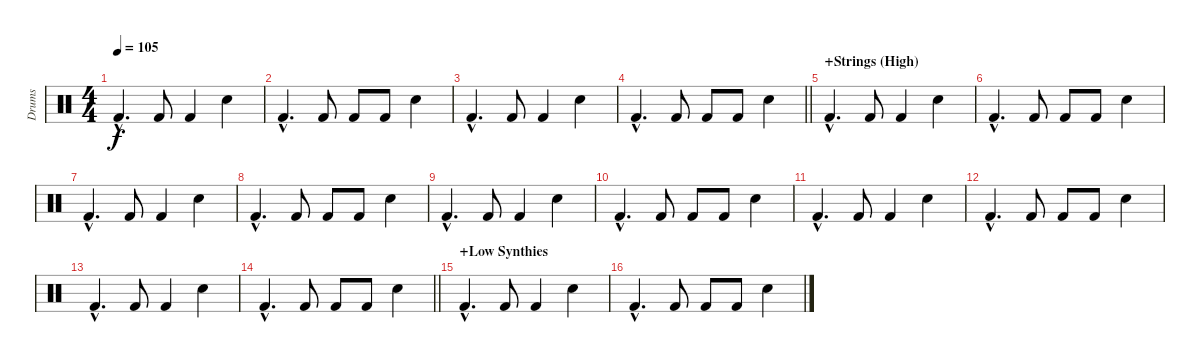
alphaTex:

\track ("Drums" "Drums") {instrument percussion}
\staff {score}
\articulation defaults
\ts (4 4)
\tempo 105
\clef neutral
\ks c "Kick (hit) 2"{hac}.4{d dy f} "Kick (hit) 2".8 "Kick (hit) 2".4 "Snare (hit) 2".4
|
"Kick (hit) 2"{hac}.4{d} "Kick (hit) 2".8 "Kick (hit) 2".8 "Kick (hit) 2".8 "Snare (hit) 2".4 |
"Kick (hit) 2"{hac}.4{d} "Kick (hit) 2".8 "Kick (hit) 2".4 "Snare (hit) 2".4 |
\barLineRight lightlight "Kick (hit) 2"{hac}.4{d} "Kick (hit) 2".8 "Kick (hit) 2".8 "Kick (hit) 2".8 "Snare (hit) 2".4
|
\section ("" "+Strings (High)")
"Kick (hit) 2"{hac}.4{d} "Kick (hit) 2".8 "Kick (hit) 2".4 "Snare (hit) 2".4 |
"Kick (hit) 2"{hac}.4{d} "Kick (hit) 2".8 "Kick (hit) 2".8 "Kick (hit) 2".8 "Snare (hit) 2".4 |
"Kick (hit) 2"{hac}.4{d} "Kick (hit) 2".8 "Kick (hit) 2".4 "Snare (hit) 2".4 |
"Kick (hit) 2"{hac}.4{d} "Kick (hit) 2".8 "Kick (hit) 2".8 "Kick (hit) 2".8 "Snare (hit) 2".4 |
"Kick (hit) 2"{hac}.4{d} "Kick (hit) 2".8 "Kick (hit) 2".4 "Snare (hit) 2".4 |
"Kick (hit) 2"{hac}.4{d} "Kick (hit) 2".8 "Kick (hit) 2".8 "Kick (hit) 2".8 "Snare (hit) 2".4 |
"Kick (hit) 2"{hac}.4{d} "Kick (hit) 2".8 "Kick (hit) 2".4 "Snare (hit) 2".4 |
"Kick (hit) 2"{hac}.4{d} "Kick (hit) 2".8 "Kick (hit) 2".8 "Kick (hit) 2".8 "Snare (hit) 2".4 |
"Kick (hit) 2"{hac}.4{d} "Kick (hit) 2".8 "Kick (hit) 2".4 "Snare (hit) 2".4 |
\barLineRight lightlight "Kick (hit) 2"{hac}.4{d} "Kick (hit) 2".8 "Kick (hit) 2".8 "Kick (hit) 2".8 "Snare (hit) 2".4
|
\section ("" "+Low Synthies")
"Kick (hit) 2"{hac}.4{d} "Kick (hit) 2".8 "Kick (hit) 2".4 "Snare (hit) 2".4 |
"Kick (hit) 2"{hac}.4{d} "Kick (hit) 2".8 "Kick (hit) 2".8 "Kick (hit) 2".8 "Snare (hit) 2".4
